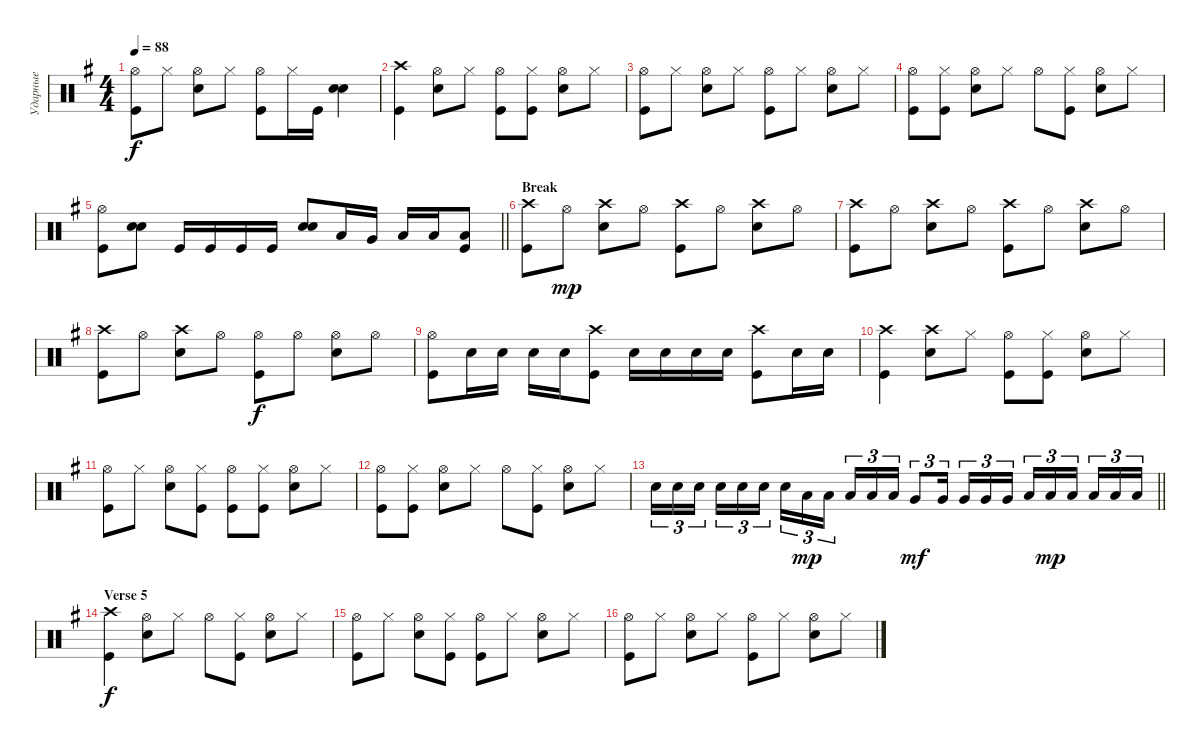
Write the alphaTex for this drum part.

\track ("Ударные" "Ударные") {instrument percussion}
\staff {score}
\articulation defaults
\ts (4 4)
\tempo 88
\clef neutral
\ks eminor
("Kick (hit)" "Hi-Hat (open)").8{dy f} "Hi-Hat (closed)".8 ("Hi-Hat (open)" "Snare (hit) 2").8 "Hi-Hat (closed)".8 ("Kick (hit)" "Hi-Hat (open)").8 "Hi-Hat (closed)".16 "Kick (hit)".16 ("Snare (hit) 2" "Snare (hit) 2").4{bd 240} |
("Kick (hit)" "Crash high (hit)").4 ("Snare (hit) 2" "Hi-Hat (open)").8 "Hi-Hat (closed)".8 ("Hi-Hat (open)" "Kick (hit)").8 ("Hi-Hat (closed)" "Kick (hit)").8 ("Snare (hit) 2" "Hi-Hat (open)").8 "Hi-Hat (closed)".8 |
("Kick (hit)" "Hi-Hat (open)").8 "Hi-Hat (closed)".8 ("Hi-Hat (open)" "Snare (hit) 2").8 "Hi-Hat (closed)".8 ("Kick (hit)" "Hi-Hat (open)").8 "Hi-Hat (closed)".8 ("Hi-Hat (open)" "Snare (hit) 2").8 "Hi-Hat (closed)".8 |
("Kick (hit)" "Hi-Hat (open)").8 ("Hi-Hat (closed)" "Kick (hit)").8 ("Hi-Hat (open)" "Snare (hit) 2").8 "Hi-Hat (closed)".8 "Hi-Hat (open)".8 ("Hi-Hat (closed)" "Kick (hit)").8 ("Hi-Hat (open)" "Snare (hit) 2").8 "Hi-Hat (closed)".8 |
\barLineRight lightlight
("Kick (hit)" "Hi-Hat (open)").8 ("Snare (hit) 2" "Snare (hit) 2").8{bd 240} "Kick (hit)".16 "Kick (hit)".16 "Kick (hit)".16 "Kick (hit)".16 ("Snare (hit) 2" "Snare (hit) 2").8{bd 240} "Low Tom (hit)".16 "Very Low Tom (hit)".16 "Low Floor Tom (hit)".16 "Low Floor Tom (hit)".16 ("Low Floor Tom (hit)" "Kick (hit)").8 |
\section ("" "Break")
("Kick (hit)" "Crash high (hit)").8 "Hi-Hat (open)".8{dy mp} ("Snare (hit) 2" "Crash high (hit)").8 "Hi-Hat (open)".8 ("Kick (hit)" "Crash high (hit)").8 "Hi-Hat (open)".8 ("Snare (hit) 2" "Crash high (hit)").8 "Hi-Hat (open)".8 |
("Kick (hit)" "Crash high (hit)").8 "Hi-Hat (open)".8 ("Snare (hit) 2" "Crash high (hit)").8 "Hi-Hat (open)".8 ("Kick (hit)" "Crash high (hit)").8 "Hi-Hat (open)".8 ("Snare (hit) 2" "Crash high (hit)").8 "Hi-Hat (open)".8 |
("Kick (hit)" "Crash high (hit)").8 "Hi-Hat (open)".8 ("Snare (hit) 2" "Crash high (hit)").8 "Hi-Hat (open)".8 ("Hi-Hat (open)" "Kick (hit)").8{dy f} "Hi-Hat (open)".8 ("Snare (hit) 2" "Hi-Hat (open)").8 "Hi-Hat (open)".8 |
("Kick (hit)" "Hi-Hat (open)").8 "Snare (hit) 2".16 "Snare (hit) 2".16 "Snare (hit) 2".16 "Snare (hit) 2".16 ("Kick (hit)" "Crash high (hit)").8 "Snare (hit) 2".16 "Snare (hit) 2".16 "Snare (hit) 2".16 "Snare (hit) 2".16 ("Kick (hit)" "Crash high (hit)").8 "Snare (hit) 2".16 "Snare (hit) 2".16 |
("Kick (hit)" "Crash high (hit)").4 ("Snare (hit) 2" "Crash high (hit)").8 "Hi-Hat (closed)".8 ("Hi-Hat (open)" "Kick (hit)").8 ("Hi-Hat (closed)" "Kick (hit)").8 ("Snare (hit) 2" "Hi-Hat (open)").8 "Hi-Hat (closed)".8 |
("Kick (hit)" "Hi-Hat (open)").8 "Hi-Hat (closed)".8 ("Hi-Hat (open)" "Snare (hit) 2").8 ("Hi-Hat (closed)" "Kick (hit)").8 ("Kick (hit)" "Hi-Hat (open)").8 ("Hi-Hat (closed)" "Kick (hit)").8 ("Hi-Hat (open)" "Snare (hit) 2").8 "Hi-Hat (closed)".8 |
("Kick (hit)" "Hi-Hat (open)").8 ("Hi-Hat (closed)" "Kick (hit)").8 ("Hi-Hat (open)" "Snare (hit) 2").8 "Hi-Hat (closed)".8 "Hi-Hat (open)".8 ("Hi-Hat (closed)" "Kick (hit)").8 ("Hi-Hat (open)" "Snare (hit) 2").8 "Hi-Hat (closed)".8 |
\barLineRight lightlight "Snare (hit) 2".16{tu (3 2)} "Snare (hit) 2".16{tu (3 2)} "Snare (hit) 2".16{tu (3 2) beam splitsecondary} "Snare (hit) 2".16{tu (3 2)} "Snare (hit) 2".16{tu (3 2)} "Snare (hit) 2".16{tu (3 2)} "Snare (hit) 2".16{tu (3 2)} "Low Tom (hit)".16{tu (3 2) dy mp} "Low Tom (hit)".16{tu (3 2) beam splitsecondary} "Low Tom (hit)".16{tu (3 2)} "Low Tom (hit)".16{tu (3 2)} "Low Tom (hit)".16{tu (3 2)} "Very Low Tom (hit)".8{tu (3 2) dy mf} "Very Low Tom (hit)".16{tu (3 2) beam splitsecondary} "Very Low Tom (hit)".16{tu (3 2)} "Very Low Tom (hit)".16{tu (3 2)} "Very Low Tom (hit)".16{tu (3 2)} "Low Floor Tom (hit)".16{tu (3 2)} "Low Floor Tom (hit)".16{tu (3 2) dy mp} "Low Floor Tom (hit)".16{tu (3 2) beam splitsecondary} "Low Floor Tom (hit)".16{tu (3 2)} "Low Floor Tom (hit)".16{tu (3 2)} "Low Floor Tom (hit)".16{tu (3 2)}
|
\section ("" "Verse 5")
("Kick (hit)" "Crash high (hit)").4{dy f} ("Snare (hit) 2" "Hi-Hat (open)").8 "Hi-Hat (closed)".8 "Hi-Hat (open)".8 ("Hi-Hat (closed)" "Kick (hit)").8 ("Snare (hit) 2" "Hi-Hat (open)").8 "Hi-Hat (closed)".8 |
("Kick (hit)" "Hi-Hat (open)").8 "Hi-Hat (closed)".8 ("Hi-Hat (open)" "Snare (hit) 2").8 ("Hi-Hat (closed)" "Kick (hit)").8 ("Kick (hit)" "Hi-Hat (open)").8 "Hi-Hat (closed)".8 ("Hi-Hat (open)" "Snare (hit) 2").8 "Hi-Hat (closed)".8 |
("Kick (hit)" "Hi-Hat (open)").8 "Hi-Hat (closed)".8 ("Hi-Hat (open)" "Snare (hit) 2").8 "Hi-Hat (closed)".8 ("Kick (hit)" "Hi-Hat (open)").8 "Hi-Hat (closed)".8 ("Hi-Hat (open)" "Snare (hit) 2").8 "Hi-Hat (closed)".8
